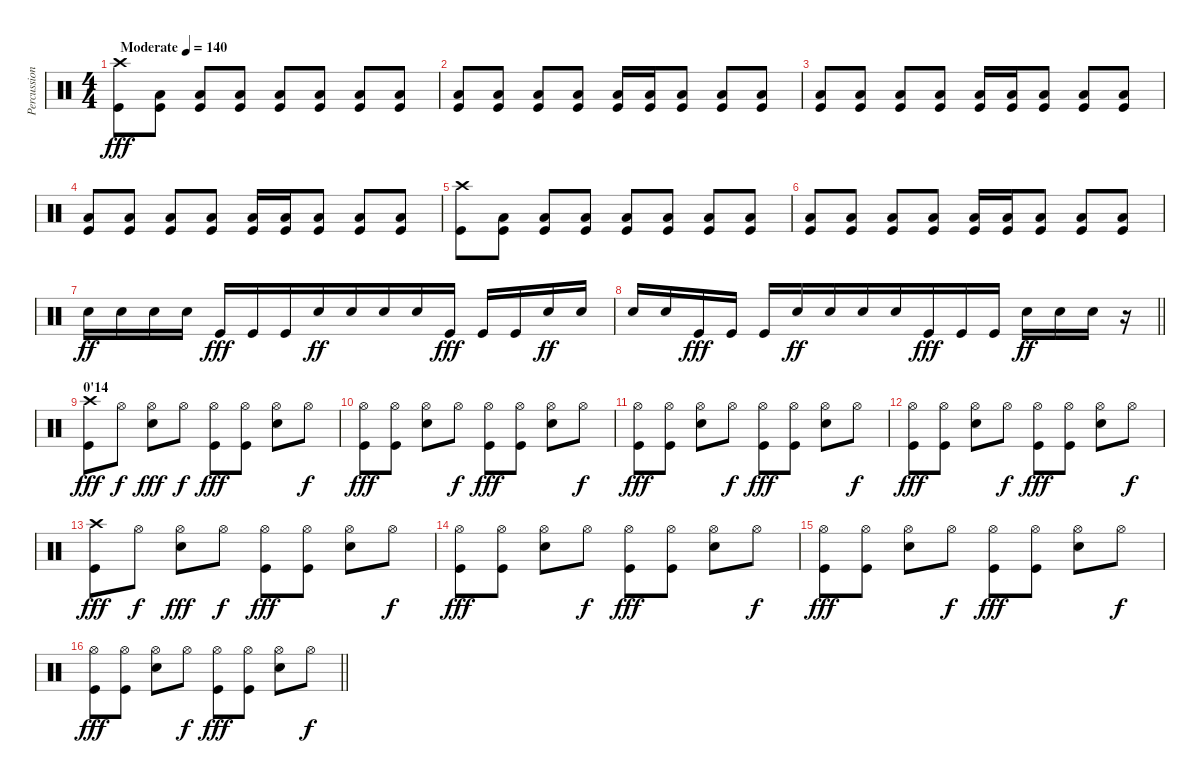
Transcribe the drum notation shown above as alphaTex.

\track ("Percussions" "Percussion") {instrument percussion}
\staff {score}
\articulation defaults
\ts (4 4)
\tempo (140 "Moderate")
\clef neutral
\ks c
("Crash high (hit)" "Kick (hit)").8{dy fff} ("Low Floor Tom (hit)" "Kick (hit)").8 ("Low Floor Tom (hit)" "Kick (hit)").8 ("Low Floor Tom (hit)" "Kick (hit)").8 ("Low Floor Tom (hit)" "Kick (hit)").8 ("Low Floor Tom (hit)" "Kick (hit)").8 ("Low Floor Tom (hit)" "Kick (hit)").8 ("Low Floor Tom (hit)" "Kick (hit)").8 |
("Low Floor Tom (hit)" "Kick (hit)").8 ("Low Floor Tom (hit)" "Kick (hit)").8 ("Low Floor Tom (hit)" "Kick (hit)").8 ("Low Floor Tom (hit)" "Kick (hit)").8 ("Low Floor Tom (hit)" "Kick (hit)").16 ("Low Floor Tom (hit)" "Kick (hit)").16 ("Low Floor Tom (hit)" "Kick (hit)").8 ("Low Floor Tom (hit)" "Kick (hit)").8 ("Low Floor Tom (hit)" "Kick (hit)").8 |
("Low Floor Tom (hit)" "Kick (hit)").8 ("Low Floor Tom (hit)" "Kick (hit)").8 ("Low Floor Tom (hit)" "Kick (hit)").8 ("Low Floor Tom (hit)" "Kick (hit)").8 ("Low Floor Tom (hit)" "Kick (hit)").16 ("Low Floor Tom (hit)" "Kick (hit)").16 ("Low Floor Tom (hit)" "Kick (hit)").8 ("Low Floor Tom (hit)" "Kick (hit)").8 ("Low Floor Tom (hit)" "Kick (hit)").8 |
("Low Floor Tom (hit)" "Kick (hit)").8 ("Low Floor Tom (hit)" "Kick (hit)").8 ("Low Floor Tom (hit)" "Kick (hit)").8 ("Low Floor Tom (hit)" "Kick (hit)").8 ("Low Floor Tom (hit)" "Kick (hit)").16 ("Low Floor Tom (hit)" "Kick (hit)").16 ("Low Floor Tom (hit)" "Kick (hit)").8 ("Low Floor Tom (hit)" "Kick (hit)").8 ("Low Floor Tom (hit)" "Kick (hit)").8 |
("Crash high (hit)" "Kick (hit)").8 ("Low Floor Tom (hit)" "Kick (hit)").8 ("Low Floor Tom (hit)" "Kick (hit)").8 ("Low Floor Tom (hit)" "Kick (hit)").8 ("Low Floor Tom (hit)" "Kick (hit)").8 ("Low Floor Tom (hit)" "Kick (hit)").8 ("Low Floor Tom (hit)" "Kick (hit)").8 ("Low Floor Tom (hit)" "Kick (hit)").8 |
("Low Floor Tom (hit)" "Kick (hit)").8 ("Low Floor Tom (hit)" "Kick (hit)").8 ("Low Floor Tom (hit)" "Kick (hit)").8 ("Low Floor Tom (hit)" "Kick (hit)").8 ("Low Floor Tom (hit)" "Kick (hit)").16 ("Low Floor Tom (hit)" "Kick (hit)").16 ("Low Floor Tom (hit)" "Kick (hit)").8 ("Low Floor Tom (hit)" "Kick (hit)").8 ("Low Floor Tom (hit)" "Kick (hit)").8 |
"Electric Snare (hit)".16{dy ff} "Electric Snare (hit)".16 "Electric Snare (hit)".16 "Electric Snare (hit)".16 "Kick (hit)".16{dy fff} "Kick (hit)".16 "Kick (hit)".16 "Electric Snare (hit)".16{dy ff beam merge} "Electric Snare (hit)".16 "Electric Snare (hit)".16 "Electric Snare (hit)".16 "Kick (hit)".16{dy fff} "Kick (hit)".16 "Kick (hit)".16 "Electric Snare (hit)".16{dy ff} "Electric Snare (hit)".16 |
\barLineRight lightlight "Electric Snare (hit)".16 "Electric Snare (hit)".16 "Kick (hit)".16{dy fff} "Kick (hit)".16 "Kick (hit)".16 "Electric Snare (hit)".16{dy ff beam merge} "Electric Snare (hit)".16 "Electric Snare (hit)".16{beam merge} "Electric Snare (hit)".16 "Kick (hit)".16{dy fff} "Kick (hit)".16 "Kick (hit)".16 "Electric Snare (hit)".16{dy ff beam merge} "Electric Snare (hit)".16 "Electric Snare (hit)".16
r.16 |
\section ("" "0'14")
("Crash high (hit)" "Kick (hit)").8{dy fff} "Hi-Hat (open)".8{dy f} ("Hi-Hat (open)" "Electric Snare (hit)").8{dy fff} "Hi-Hat (open)".8{dy f} ("Hi-Hat (open)" "Kick (hit)").8{dy fff} ("Hi-Hat (open)" "Kick (hit)").8 ("Hi-Hat (open)" "Electric Snare (hit)").8 "Hi-Hat (open)".8{dy f} |
("Hi-Hat (open)" "Kick (hit)").8{dy fff} ("Hi-Hat (open)" "Kick (hit)").8 ("Hi-Hat (open)" "Electric Snare (hit)").8 "Hi-Hat (open)".8{dy f} ("Hi-Hat (open)" "Kick (hit)").8{dy fff} ("Hi-Hat (open)" "Kick (hit)").8 ("Hi-Hat (open)" "Electric Snare (hit)").8 "Hi-Hat (open)".8{dy f} |
("Hi-Hat (open)" "Kick (hit)").8{dy fff} ("Hi-Hat (open)" "Kick (hit)").8 ("Hi-Hat (open)" "Electric Snare (hit)").8 "Hi-Hat (open)".8{dy f} ("Hi-Hat (open)" "Kick (hit)").8{dy fff} ("Hi-Hat (open)" "Kick (hit)").8 ("Hi-Hat (open)" "Electric Snare (hit)").8 "Hi-Hat (open)".8{dy f} |
("Hi-Hat (open)" "Kick (hit)").8{dy fff} ("Hi-Hat (open)" "Kick (hit)").8 ("Hi-Hat (open)" "Electric Snare (hit)").8 "Hi-Hat (open)".8{dy f} ("Hi-Hat (open)" "Kick (hit)").8{dy fff} ("Hi-Hat (open)" "Kick (hit)").8 ("Hi-Hat (open)" "Electric Snare (hit)").8 "Hi-Hat (open)".8{dy f} |
("Crash high (hit)" "Kick (hit)").8{dy fff} "Hi-Hat (open)".8{dy f} ("Hi-Hat (open)" "Electric Snare (hit)").8{dy fff} "Hi-Hat (open)".8{dy f} ("Hi-Hat (open)" "Kick (hit)").8{dy fff} ("Hi-Hat (open)" "Kick (hit)").8 ("Hi-Hat (open)" "Electric Snare (hit)").8 "Hi-Hat (open)".8{dy f} |
("Hi-Hat (open)" "Kick (hit)").8{dy fff} ("Hi-Hat (open)" "Kick (hit)").8 ("Hi-Hat (open)" "Electric Snare (hit)").8 "Hi-Hat (open)".8{dy f} ("Hi-Hat (open)" "Kick (hit)").8{dy fff} ("Hi-Hat (open)" "Kick (hit)").8 ("Hi-Hat (open)" "Electric Snare (hit)").8 "Hi-Hat (open)".8{dy f} |
("Hi-Hat (open)" "Kick (hit)").8{dy fff} ("Hi-Hat (open)" "Kick (hit)").8 ("Hi-Hat (open)" "Electric Snare (hit)").8 "Hi-Hat (open)".8{dy f} ("Hi-Hat (open)" "Kick (hit)").8{dy fff} ("Hi-Hat (open)" "Kick (hit)").8 ("Hi-Hat (open)" "Electric Snare (hit)").8 "Hi-Hat (open)".8{dy f} |
\barLineRight lightlight
("Hi-Hat (open)" "Kick (hit)").8{dy fff} ("Hi-Hat (open)" "Kick (hit)").8 ("Hi-Hat (open)" "Electric Snare (hit)").8 "Hi-Hat (open)".8{dy f} ("Hi-Hat (open)" "Kick (hit)").8{dy fff} ("Hi-Hat (open)" "Kick (hit)").8 ("Hi-Hat (open)" "Electric Snare (hit)").8 "Hi-Hat (open)".8{dy f}
